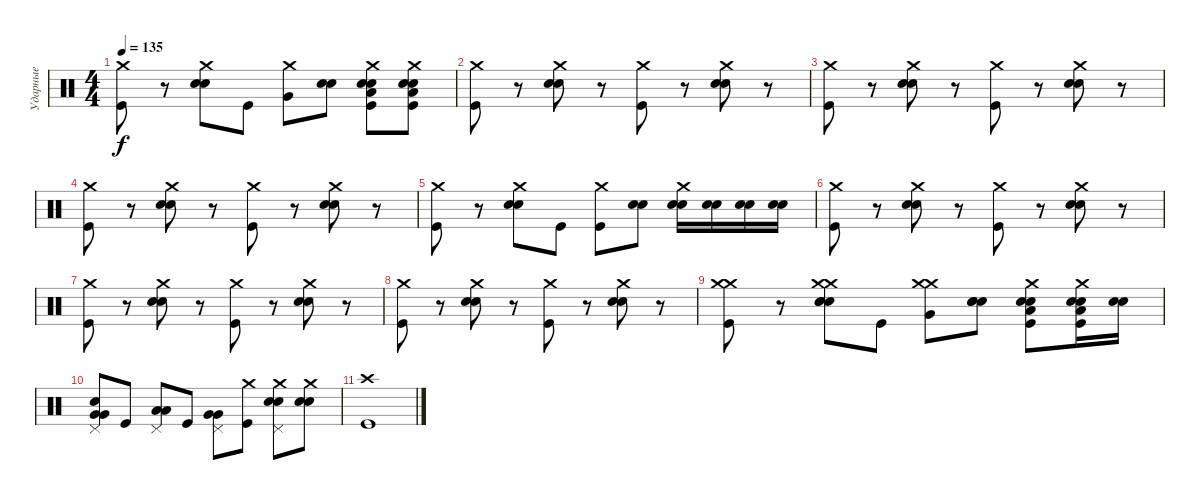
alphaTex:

\track ("Ударные" "Ударные") {instrument percussion}
\staff {score}
\articulation defaults
\ts (4 4)
\tempo 135
\clef neutral
\ks c
("Crash medium (hit)" "Kick (hit)").8{dy f} r.8 ("Crash medium (hit)" "Electric Snare (hit)" "Electric Snare (hit)").8 "Kick (hit)".8 ("Crash medium (hit)" "Very Low Tom (hit)").8 ("Electric Snare (hit)" "Electric Snare (hit)").8 ("Crash medium (hit)" "Electric Snare (hit)" "Electric Snare (hit)" "Low Floor Tom (hit)" "Kick (hit)").8 ("Crash medium (hit)" "Electric Snare (hit)" "Electric Snare (hit)" "Low Floor Tom (hit)" "Kick (hit)").8 |
("Crash medium (hit)" "Kick (hit)").8 r.8 ("Crash medium (hit)" "Electric Snare (hit)" "Electric Snare (hit)").8 r.8 ("Crash medium (hit)" "Kick (hit)").8 r.8 ("Crash medium (hit)" "Electric Snare (hit)" "Electric Snare (hit)").8 r.8 |
("Crash medium (hit)" "Kick (hit)").8 r.8 ("Crash medium (hit)" "Electric Snare (hit)" "Electric Snare (hit)").8 r.8 ("Crash medium (hit)" "Kick (hit)").8 r.8 ("Crash medium (hit)" "Electric Snare (hit)" "Electric Snare (hit)").8 r.8 |
("Crash medium (hit)" "Kick (hit)").8 r.8 ("Crash medium (hit)" "Electric Snare (hit)" "Electric Snare (hit)").8 r.8 ("Crash medium (hit)" "Kick (hit)").8 r.8 ("Crash medium (hit)" "Electric Snare (hit)" "Electric Snare (hit)").8 r.8 |
("Crash medium (hit)" "Kick (hit)").8 r.8 ("Crash medium (hit)" "Electric Snare (hit)" "Electric Snare (hit)").8 "Kick (hit)".8 ("Crash medium (hit)" "Kick (hit)").8 ("Electric Snare (hit)" "Electric Snare (hit)").8 ("Crash medium (hit)" "Electric Snare (hit)" "Electric Snare (hit)").16 ("Electric Snare (hit)" "Electric Snare (hit)").16 ("Electric Snare (hit)" "Electric Snare (hit)").16 ("Electric Snare (hit)" "Electric Snare (hit)").16 |
("Crash medium (hit)" "Kick (hit)").8 r.8 ("Crash medium (hit)" "Electric Snare (hit)" "Electric Snare (hit)").8 r.8 ("Crash medium (hit)" "Kick (hit)").8 r.8 ("Crash medium (hit)" "Electric Snare (hit)" "Electric Snare (hit)").8 r.8 |
("Crash medium (hit)" "Kick (hit)").8 r.8 ("Crash medium (hit)" "Electric Snare (hit)" "Electric Snare (hit)").8 r.8 ("Crash medium (hit)" "Kick (hit)").8 r.8 ("Crash medium (hit)" "Electric Snare (hit)" "Electric Snare (hit)").8 r.8 |
("Crash medium (hit)" "Kick (hit)").8 r.8 ("Crash medium (hit)" "Electric Snare (hit)" "Electric Snare (hit)").8 r.8 ("Crash medium (hit)" "Kick (hit)").8 r.8 ("Crash medium (hit)" "Electric Snare (hit)" "Electric Snare (hit)").8 r.8 |
("Crash medium (hit)" "Crash medium (hit)" "Kick (hit)").8 r.8 ("Crash medium (hit)" "Crash medium (hit)" "Electric Snare (hit)" "Electric Snare (hit)" "Electric Snare (hit)").8 "Kick (hit)".8 ("Crash medium (hit)" "Crash medium (hit)" "Very Low Tom (hit)").8 ("Electric Snare (hit)" "Electric Snare (hit)" "Electric Snare (hit)").8 ("Crash medium (hit)" "Electric Snare (hit)" "Electric Snare (hit)" "Low Floor Tom (hit)" "Kick (hit)").8 ("Crash medium (hit)" "Electric Snare (hit)" "Electric Snare (hit)" "Low Floor Tom (hit)" "Kick (hit)").16 ("Electric Snare (hit)" "Electric Snare (hit)").16 |
("Pedal Hi-Hat (hit)" "Electric Snare (hit)" "Very Low Tom (hit)" "Very Low Tom (hit)").8 "Kick (hit)".8 ("Pedal Hi-Hat (hit)" "Low Floor Tom (hit)" "Low Floor Tom (hit)").8 "Kick (hit)".8 ("Pedal Hi-Hat (hit)" "Very Low Tom (hit)" "Very Low Tom (hit)").8 ("Crash medium (hit)" "Kick (hit)").8 ("Pedal Hi-Hat (hit)" "Crash medium (hit)" "Electric Snare (hit)" "Electric Snare (hit)").8 ("Crash medium (hit)" "Electric Snare (hit)" "Electric Snare (hit)").8 |
("Crash high (hit)" "Kick (hit)").1
